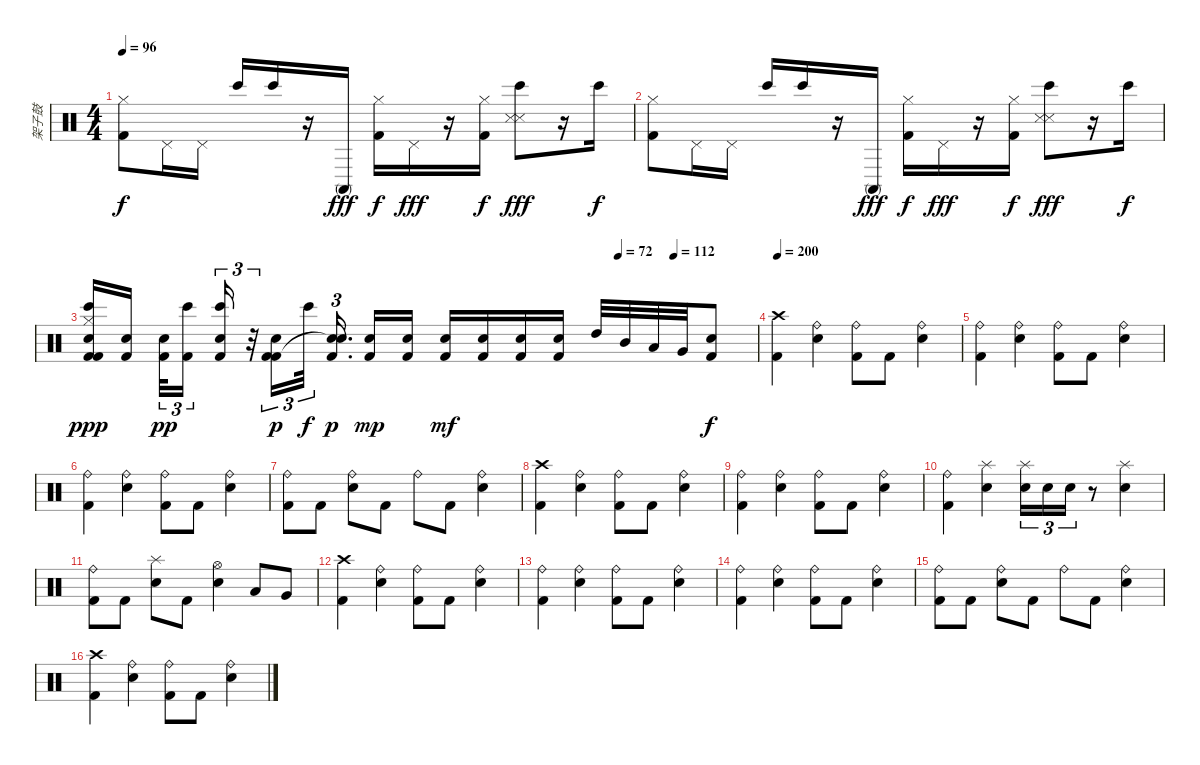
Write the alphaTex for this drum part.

\track ("架子鼓" "架子鼓") {instrument percussion}
\staff {score}
\articulation defaults
\ts (4 4)
\tempo 96
\clef neutral
\ks c
("Kick (hit) 2" "Hi-Hat (closed)").8{dy f} "Pedal Hi-Hat (hit)".16 "Pedal Hi-Hat (hit)".16 "Bongo High (hit)".16 "Bongo High (hit)".16 r.16 "Conga high (mute)".16{dy fff} ("Kick (hit) 2" "Hi-Hat (closed)").16{dy f} "Pedal Hi-Hat (hit)".16{dy fff} r.16 ("Kick (hit) 2" "Hi-Hat (closed)").16{dy f} ("Bongo High (hit)" "Snare (side stick) 3" "Metronome (hit)").8{dy fff} r.16 "Bongo High (hit)".16{dy f} |
("Kick (hit) 2" "Hi-Hat (closed)").8 "Pedal Hi-Hat (hit)".16 "Pedal Hi-Hat (hit)".16 "Bongo High (hit)".16 "Bongo High (hit)".16 r.16 "Conga high (mute)".16{dy fff} ("Kick (hit) 2" "Hi-Hat (closed)").16{dy f} "Pedal Hi-Hat (hit)".16{dy fff} r.16 ("Kick (hit) 2" "Hi-Hat (closed)").16{dy f} ("Bongo High (hit)" "Snare (side stick) 3" "Metronome (hit)").8{dy fff} r.16 "Bongo High (hit)".16{dy f} |
\tempo (72 0.7916666666666666)
\tempo (112 0.875)
("Snare (hit) 2" "Bongo High (hit)" "Kick (hit) 2" "Hi-Hat (closed)" "Kick (hit) 2").16{dy ppp} ("Snare (hit) 2" "Kick (hit) 2").16{beam splitsecondary} ("Snare (hit) 2" "Kick (hit) 2").32{tu (3 2) dy pp} ("Bongo High (hit)" "Kick (hit) 2").16{tu (3 2) beam splitsecondary} ("Snare (hit) 2" "Bongo High (hit)" "Kick (hit) 2").16{tu (3 2)} r.32{tu (3 2)} ("Snare (hit) 2" "Kick (hit) 2" "Kick (hit) 2").16{tu (3 2) dy p} "Bongo High (hit)".32{tu (3 2) dy f beam splitsecondary} ("Snare (hit) 2" "Snare (hit)"{t} "Kick (hit) 2").16{d tu (3 2) dy p beam splitsecondary} ("Snare (hit) 2" "Kick (hit) 2").16{dy mp} ("Snare (hit) 2" "Kick (hit) 2").16 ("Snare (hit) 2" "Kick (hit) 2").16{dy mf} ("Snare (hit) 2" "Kick (hit) 2").16 ("Snare (hit) 2" "Kick (hit) 2").16 ("Snare (hit) 2" "Kick (hit) 2").16 "High Tom (hit)".32 "Mid Tom (hit)".32 "Low Tom (hit)".32 "Very Low Tom (hit)".32 ("Snare (hit) 2" "Kick (hit) 2").8{dy f} |
\tempo 196
\tempo 200
("Crash high (hit)" "Kick (hit) 2").4 ("Ride (bell)" "Snare (hit) 2").4 ("Ride (bell)" "Kick (hit) 2").8 "Kick (hit) 2".8 ("Ride (bell)" "Snare (hit) 2").4 |
("Ride (bell)" "Kick (hit) 2").4 ("Ride (bell)" "Snare (hit) 2").4 ("Ride (bell)" "Kick (hit) 2").8 "Kick (hit) 2".8 ("Ride (bell)" "Snare (hit) 2").4 |
("Ride (bell)" "Kick (hit) 2").4 ("Ride (bell)" "Snare (hit) 2").4 ("Ride (bell)" "Kick (hit) 2").8 "Kick (hit) 2".8 ("Ride (bell)" "Snare (hit) 2").4 |
("Ride (bell)" "Kick (hit) 2").8 "Kick (hit) 2".8 ("Ride (bell)" "Snare (hit) 2").8 "Kick (hit) 2".8 "Ride (bell)".8 "Kick (hit) 2".8 ("Ride (bell)" "Snare (hit) 2").4 |
("Crash high (hit)" "Kick (hit) 2").4 ("Ride (bell)" "Snare (hit) 2").4 ("Ride (bell)" "Kick (hit) 2").8 "Kick (hit) 2".8 ("Ride (bell)" "Snare (hit) 2").4 |
("Ride (bell)" "Kick (hit) 2").4 ("Ride (bell)" "Snare (hit) 2").4 ("Ride (bell)" "Kick (hit) 2").8 "Kick (hit) 2".8 ("Ride (bell)" "Snare (hit) 2").4 |
("Ride (bell)" "Kick (hit) 2").4 ("Splash (hit)" "Snare (hit) 2").4 ("Splash (hit)" "Snare (hit) 2").16{tu (3 2)} "Snare (hit) 2".16{tu (3 2)} "Snare (hit) 2".16{tu (3 2)} r.8 ("Splash (hit)" "Snare (hit) 2").4 |
("Ride (bell)" "Kick (hit) 2").8 "Kick (hit) 2".8 ("Splash (hit)" "Snare (hit) 2").8 "Kick (hit) 2".8 ("Hi-Hat (open)" "Snare (hit) 2").4 "Low Tom (hit)".8 "Very Low Tom (hit)".8 |
("Crash high (hit)" "Kick (hit) 2").4 ("Ride (bell)" "Snare (hit) 2").4 ("Ride (bell)" "Kick (hit) 2").8 "Kick (hit) 2".8 ("Ride (bell)" "Snare (hit) 2").4 |
("Ride (bell)" "Kick (hit) 2").4 ("Ride (bell)" "Snare (hit) 2").4 ("Ride (bell)" "Kick (hit) 2").8 "Kick (hit) 2".8 ("Ride (bell)" "Snare (hit) 2").4 |
("Ride (bell)" "Kick (hit) 2").4 ("Ride (bell)" "Snare (hit) 2").4 ("Ride (bell)" "Kick (hit) 2").8 "Kick (hit) 2".8 ("Ride (bell)" "Snare (hit) 2").4 |
("Ride (bell)" "Kick (hit) 2").8 "Kick (hit) 2".8 ("Ride (bell)" "Snare (hit) 2").8 "Kick (hit) 2".8 "Ride (bell)".8 "Kick (hit) 2".8 ("Ride (bell)" "Snare (hit) 2").4 |
("Crash high (hit)" "Kick (hit) 2").4 ("Ride (bell)" "Snare (hit) 2").4 ("Ride (bell)" "Kick (hit) 2").8 "Kick (hit) 2".8 ("Ride (bell)" "Snare (hit) 2").4
